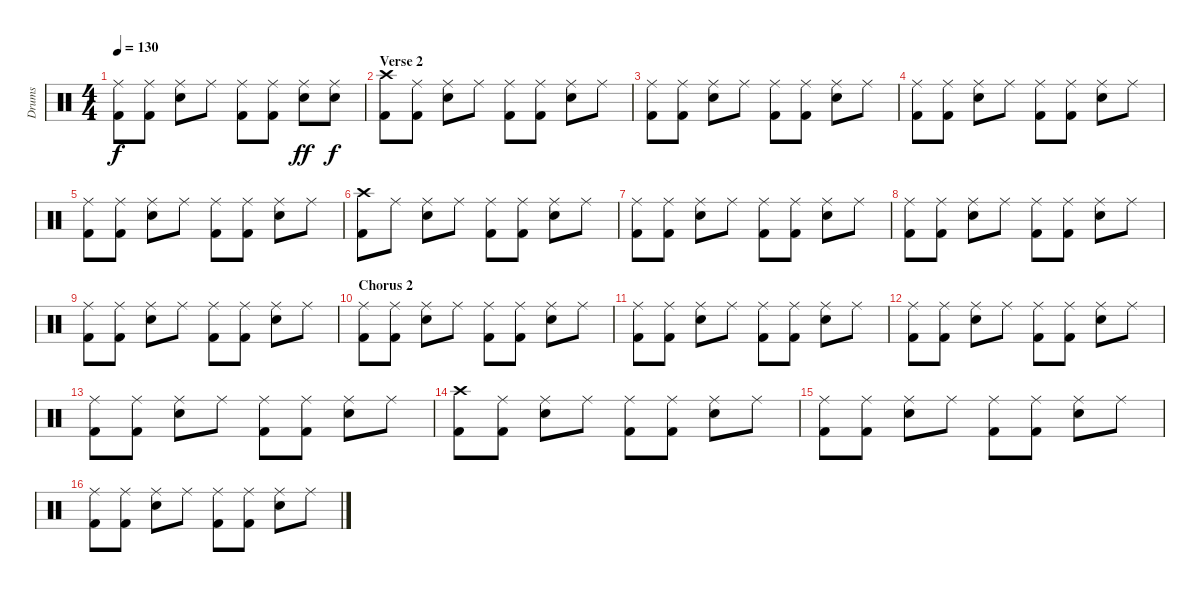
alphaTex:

\track ("Drums" "Drums") {instrument percussion}
\staff {score}
\articulation defaults
\ts (4 4)
\tempo 130
\clef neutral
\ks c
("Ride (middle)" "Kick (hit) 2").8{dy f} ("Ride (middle)" "Kick (hit) 2").8 ("Ride (middle)" "Electric Snare (hit)").8 "Ride (middle)".8 ("Ride (middle)" "Kick (hit) 2").8 ("Ride (middle)" "Kick (hit) 2").8 ("Ride (middle)" "Electric Snare (hit)").8{dy ff} ("Ride (middle)" "Electric Snare (hit)").8{dy f} |
\section ("" "Verse 2")
("Crash high (hit)" "Kick (hit) 2").8 ("Ride (middle)" "Kick (hit) 2").8 ("Ride (middle)" "Electric Snare (hit)").8 "Ride (middle)".8 ("Ride (middle)" "Kick (hit) 2").8 ("Ride (middle)" "Kick (hit) 2").8 ("Ride (middle)" "Electric Snare (hit)").8 "Ride (middle)".8 |
("Ride (middle)" "Kick (hit) 2").8 ("Ride (middle)" "Kick (hit) 2").8 ("Ride (middle)" "Electric Snare (hit)").8 "Ride (middle)".8 ("Ride (middle)" "Kick (hit) 2").8 ("Ride (middle)" "Kick (hit) 2").8 ("Ride (middle)" "Electric Snare (hit)").8 "Ride (middle)".8 |
("Ride (middle)" "Kick (hit) 2").8 ("Ride (middle)" "Kick (hit) 2").8 ("Ride (middle)" "Electric Snare (hit)").8 "Ride (middle)".8 ("Ride (middle)" "Kick (hit) 2").8 ("Ride (middle)" "Kick (hit) 2").8 ("Ride (middle)" "Electric Snare (hit)").8 "Ride (middle)".8 |
("Ride (middle)" "Kick (hit) 2").8 ("Ride (middle)" "Kick (hit) 2").8 ("Ride (middle)" "Electric Snare (hit)").8 "Ride (middle)".8 ("Ride (middle)" "Kick (hit) 2").8 ("Ride (middle)" "Kick (hit) 2").8 ("Ride (middle)" "Electric Snare (hit)").8 "Ride (middle)".8 |
("Crash high (hit)" "Kick (hit) 2").8 "Ride (middle)".8 ("Ride (middle)" "Electric Snare (hit)").8 "Ride (middle)".8 ("Ride (middle)" "Kick (hit) 2").8 ("Ride (middle)" "Kick (hit) 2").8 ("Ride (middle)" "Electric Snare (hit)").8 "Ride (middle)".8 |
("Ride (middle)" "Kick (hit) 2").8 ("Ride (middle)" "Kick (hit) 2").8 ("Ride (middle)" "Electric Snare (hit)").8 "Ride (middle)".8 ("Ride (middle)" "Kick (hit) 2").8 ("Ride (middle)" "Kick (hit) 2").8 ("Ride (middle)" "Electric Snare (hit)").8 "Ride (middle)".8 |
("Ride (middle)" "Kick (hit) 2").8 ("Ride (middle)" "Kick (hit) 2").8 ("Ride (middle)" "Electric Snare (hit)").8 "Ride (middle)".8 ("Ride (middle)" "Kick (hit) 2").8 ("Ride (middle)" "Kick (hit) 2").8 ("Ride (middle)" "Electric Snare (hit)").8 "Ride (middle)".8 |
("Ride (middle)" "Kick (hit) 2").8 ("Ride (middle)" "Kick (hit) 2").8 ("Ride (middle)" "Electric Snare (hit)").8 "Ride (middle)".8 ("Ride (middle)" "Kick (hit) 2").8 ("Ride (middle)" "Kick (hit) 2").8 ("Ride (middle)" "Electric Snare (hit)").8 "Ride (middle)".8 |
\section ("" "Chorus 2")
("Ride (middle)" "Kick (hit) 2").8 ("Ride (middle)" "Kick (hit) 2").8 ("Ride (middle)" "Electric Snare (hit)").8 "Ride (middle)".8 ("Ride (middle)" "Kick (hit) 2").8 ("Ride (middle)" "Kick (hit) 2").8 ("Ride (middle)" "Electric Snare (hit)").8 "Ride (middle)".8 |
("Ride (middle)" "Kick (hit) 2").8 ("Ride (middle)" "Kick (hit) 2").8 ("Ride (middle)" "Electric Snare (hit)").8 "Ride (middle)".8 ("Ride (middle)" "Kick (hit) 2").8 ("Ride (middle)" "Kick (hit) 2").8 ("Ride (middle)" "Electric Snare (hit)").8 "Ride (middle)".8 |
("Ride (middle)" "Kick (hit) 2").8 ("Ride (middle)" "Kick (hit) 2").8 ("Ride (middle)" "Electric Snare (hit)").8 "Ride (middle)".8 ("Ride (middle)" "Kick (hit) 2").8 ("Ride (middle)" "Kick (hit) 2").8 ("Ride (middle)" "Electric Snare (hit)").8 "Ride (middle)".8 |
("Ride (middle)" "Kick (hit) 2").8 ("Ride (middle)" "Kick (hit) 2").8 ("Ride (middle)" "Electric Snare (hit)").8 "Ride (middle)".8 ("Ride (middle)" "Kick (hit) 2").8 ("Ride (middle)" "Kick (hit) 2").8 ("Ride (middle)" "Electric Snare (hit)").8 "Ride (middle)".8 |
("Crash high (hit)" "Kick (hit) 2").8 ("Ride (middle)" "Kick (hit) 2").8 ("Ride (middle)" "Electric Snare (hit)").8 "Ride (middle)".8 ("Ride (middle)" "Kick (hit) 2").8 ("Ride (middle)" "Kick (hit) 2").8 ("Ride (middle)" "Electric Snare (hit)").8 "Ride (middle)".8 |
("Ride (middle)" "Kick (hit) 2").8 ("Ride (middle)" "Kick (hit) 2").8 ("Ride (middle)" "Electric Snare (hit)").8 "Ride (middle)".8 ("Ride (middle)" "Kick (hit) 2").8 ("Ride (middle)" "Kick (hit) 2").8 ("Ride (middle)" "Electric Snare (hit)").8 "Ride (middle)".8 |
("Ride (middle)" "Kick (hit) 2").8 ("Ride (middle)" "Kick (hit) 2").8 ("Ride (middle)" "Electric Snare (hit)").8 "Ride (middle)".8 ("Ride (middle)" "Kick (hit) 2").8 ("Ride (middle)" "Kick (hit) 2").8 ("Ride (middle)" "Electric Snare (hit)").8 "Ride (middle)".8
